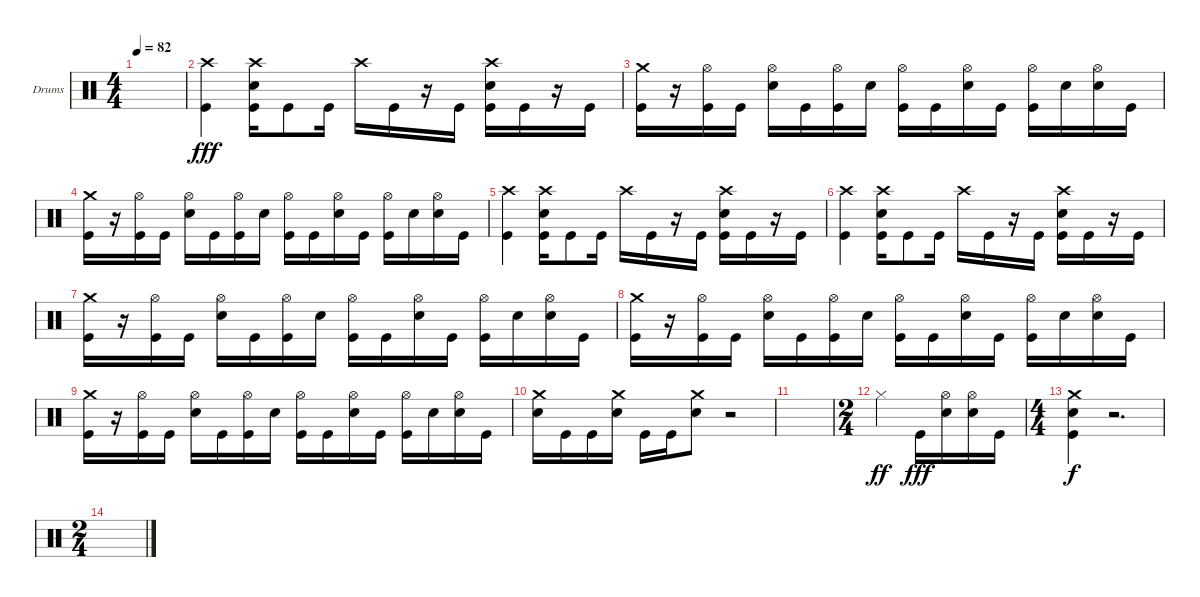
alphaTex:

\bracketExtendMode groupsimilarinstruments
\firstSystemTrackNameOrientation horizontal
\otherSystemsTrackNameOrientation horizontal
\track ("Drumkit" "Drums") {instrument percussion}
\staff {score}
\articulation defaults
\ts (4 4)
\tempo 82
\clef neutral
\ks c
|
("Crash high (hit)" "Kick (hit)").4{dy fff} ("Kick (hit)" "Snare (hit) 2" "Crash high (hit)").16 "Kick (hit)".8 "Kick (hit)".16 "Crash high (hit)".16 "Kick (hit)".16 r.16 "Kick (hit)".16 ("Kick (hit)" "Snare (hit) 2" "Crash high (hit)").16 "Kick (hit)".16 r.16 "Kick (hit)".16 |
("Crash medium (hit)" "Kick (hit)").16 r.16 ("Kick (hit)" "Hi-Hat (open)").16 "Kick (hit)".16 ("Snare (hit) 2" "Hi-Hat (open)").16 "Kick (hit)".16 ("Kick (hit)" "Hi-Hat (open)").16 "Snare (hit) 2".16 ("Kick (hit)" "Hi-Hat (open)").16 "Kick (hit)".16 ("Snare (hit) 2" "Hi-Hat (open)").16 "Kick (hit)".16 ("Kick (hit)" "Hi-Hat (open)").16 "Snare (hit) 2".16 ("Snare (hit) 2" "Hi-Hat (open)").16 "Kick (hit)".16 |
("Crash medium (hit)" "Kick (hit)").16 r.16 ("Kick (hit)" "Hi-Hat (open)").16 "Kick (hit)".16 ("Snare (hit) 2" "Hi-Hat (open)").16 "Kick (hit)".16 ("Kick (hit)" "Hi-Hat (open)").16 "Snare (hit) 2".16 ("Kick (hit)" "Hi-Hat (open)").16 "Kick (hit)".16 ("Snare (hit) 2" "Hi-Hat (open)").16 "Kick (hit)".16 ("Kick (hit)" "Hi-Hat (open)").16 "Snare (hit) 2".16 ("Snare (hit) 2" "Hi-Hat (open)").16 "Kick (hit)".16 |
("Crash high (hit)" "Kick (hit)").4 ("Kick (hit)" "Snare (hit) 2" "Crash high (hit)").16 "Kick (hit)".8 "Kick (hit)".16 "Crash high (hit)".16 "Kick (hit)".16 r.16 "Kick (hit)".16 ("Kick (hit)" "Snare (hit) 2" "Crash high (hit)").16 "Kick (hit)".16 r.16 "Kick (hit)".16 |
("Crash high (hit)" "Kick (hit)").4 ("Kick (hit)" "Snare (hit) 2" "Crash high (hit)").16 "Kick (hit)".8 "Kick (hit)".16 "Crash high (hit)".16 "Kick (hit)".16 r.16 "Kick (hit)".16 ("Kick (hit)" "Snare (hit) 2" "Crash high (hit)").16 "Kick (hit)".16 r.16 "Kick (hit)".16 |
("Crash medium (hit)" "Kick (hit)").16 r.16 ("Kick (hit)" "Hi-Hat (open)").16 "Kick (hit)".16 ("Snare (hit) 2" "Hi-Hat (open)").16 "Kick (hit)".16 ("Kick (hit)" "Hi-Hat (open)").16 "Snare (hit) 2".16 ("Kick (hit)" "Hi-Hat (open)").16 "Kick (hit)".16 ("Snare (hit) 2" "Hi-Hat (open)").16 "Kick (hit)".16 ("Kick (hit)" "Hi-Hat (open)").16 "Snare (hit) 2".16 ("Snare (hit) 2" "Hi-Hat (open)").16 "Kick (hit)".16 |
("Crash medium (hit)" "Kick (hit)").16 r.16 ("Kick (hit)" "Hi-Hat (open)").16 "Kick (hit)".16 ("Snare (hit) 2" "Hi-Hat (open)").16 "Kick (hit)".16 ("Kick (hit)" "Hi-Hat (open)").16 "Snare (hit) 2".16 ("Kick (hit)" "Hi-Hat (open)").16 "Kick (hit)".16 ("Snare (hit) 2" "Hi-Hat (open)").16 "Kick (hit)".16 ("Kick (hit)" "Hi-Hat (open)").16 "Snare (hit) 2".16 ("Snare (hit) 2" "Hi-Hat (open)").16 "Kick (hit)".16 |
("Crash medium (hit)" "Kick (hit)").16 r.16 ("Kick (hit)" "Hi-Hat (open)").16 "Kick (hit)".16 ("Snare (hit) 2" "Hi-Hat (open)").16 "Kick (hit)".16 ("Kick (hit)" "Hi-Hat (open)").16 "Snare (hit) 2".16 ("Kick (hit)" "Hi-Hat (open)").16 "Kick (hit)".16 ("Snare (hit) 2" "Hi-Hat (open)").16 "Kick (hit)".16 ("Kick (hit)" "Hi-Hat (open)").16 "Snare (hit) 2".16 ("Snare (hit) 2" "Hi-Hat (open)").16 "Kick (hit)".16 |
("Crash medium (hit)" "Snare (hit) 2").16 "Kick (hit)".16 "Kick (hit)".16 ("Crash medium (hit)" "Snare (hit) 2").16 "Kick (hit)".16 "Kick (hit)".16 ("Crash medium (hit)" "Snare (hit) 2").8 r.2 |
|
\ts (2 4)
"Hi-Hat (closed)".4{dy ff} "Kick (hit)".16{dy fff} ("Snare (hit) 2" "Hi-Hat (open)").16 ("Snare (hit) 2" "Hi-Hat (open)").16 "Kick (hit)".16 |
\ts (4 4)
("Crash medium (hit)" "Kick (hit)" "Snare (hit) 2").4{dy f} r.2{d} |
\ts (2 4)
